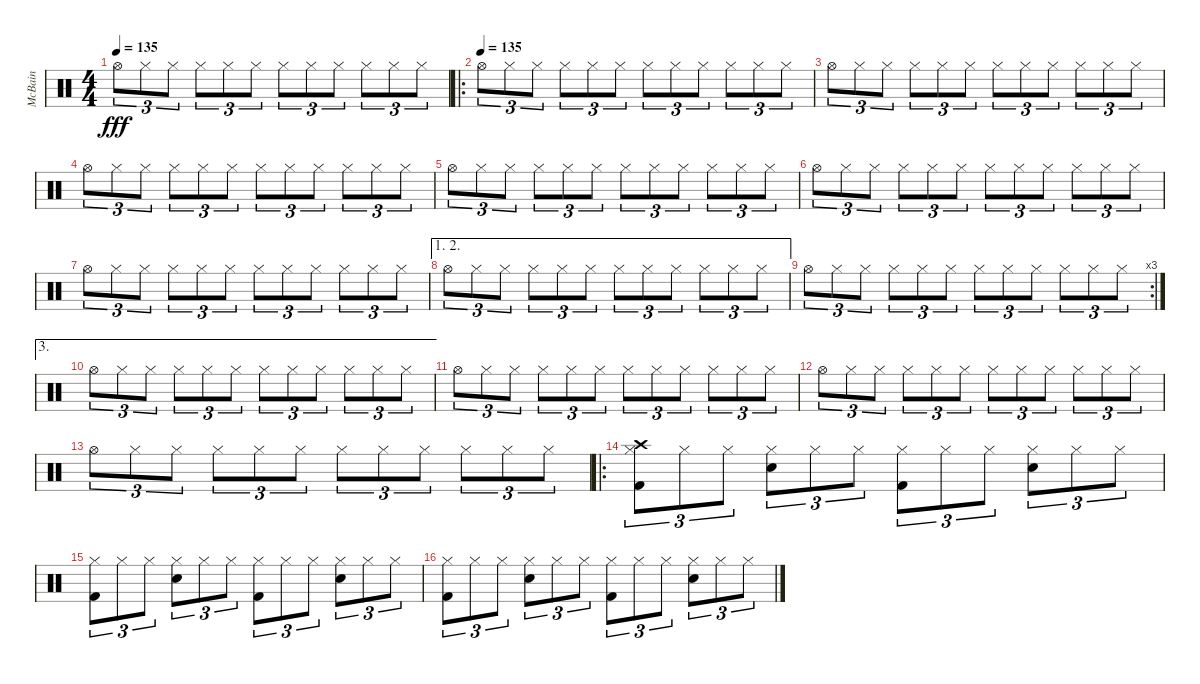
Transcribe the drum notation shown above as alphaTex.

\track ("McBain" "McBain") {instrument percussion}
\staff {score}
\articulation defaults
\ts (4 4)
\tempo 135
\clef neutral
\ks c "Hi-Hat (open)".8{tu (3 2) dy fff} "Hi-Hat (closed)".8{tu (3 2)} "Hi-Hat (closed)".8{tu (3 2)} "Hi-Hat (closed)".8{tu (3 2)} "Hi-Hat (closed)".8{tu (3 2)} "Hi-Hat (closed)".8{tu (3 2)} "Hi-Hat (closed)".8{tu (3 2)} "Hi-Hat (closed)".8{tu (3 2)} "Hi-Hat (closed)".8{tu (3 2)} "Hi-Hat (closed)".8{tu (3 2)} "Hi-Hat (closed)".8{tu (3 2)} "Hi-Hat (closed)".8{tu (3 2)}
|
\ro
\tempo (135)
"Hi-Hat (open)".8{tu (3 2)} "Hi-Hat (closed)".8{tu (3 2)} "Hi-Hat (closed)".8{tu (3 2)} "Hi-Hat (closed)".8{tu (3 2)} "Hi-Hat (closed)".8{tu (3 2)} "Hi-Hat (closed)".8{tu (3 2)} "Hi-Hat (closed)".8{tu (3 2)} "Hi-Hat (closed)".8{tu (3 2)} "Hi-Hat (closed)".8{tu (3 2)} "Hi-Hat (closed)".8{tu (3 2)} "Hi-Hat (closed)".8{tu (3 2)} "Hi-Hat (closed)".8{tu (3 2)} |
"Hi-Hat (open)".8{tu (3 2)} "Hi-Hat (closed)".8{tu (3 2)} "Hi-Hat (closed)".8{tu (3 2)} "Hi-Hat (closed)".8{tu (3 2)} "Hi-Hat (closed)".8{tu (3 2)} "Hi-Hat (closed)".8{tu (3 2)} "Hi-Hat (closed)".8{tu (3 2)} "Hi-Hat (closed)".8{tu (3 2)} "Hi-Hat (closed)".8{tu (3 2)} "Hi-Hat (closed)".8{tu (3 2)} "Hi-Hat (closed)".8{tu (3 2)} "Hi-Hat (closed)".8{tu (3 2)} |
"Hi-Hat (open)".8{tu (3 2)} "Hi-Hat (closed)".8{tu (3 2)} "Hi-Hat (closed)".8{tu (3 2)} "Hi-Hat (closed)".8{tu (3 2)} "Hi-Hat (closed)".8{tu (3 2)} "Hi-Hat (closed)".8{tu (3 2)} "Hi-Hat (closed)".8{tu (3 2)} "Hi-Hat (closed)".8{tu (3 2)} "Hi-Hat (closed)".8{tu (3 2)} "Hi-Hat (closed)".8{tu (3 2)} "Hi-Hat (closed)".8{tu (3 2)} "Hi-Hat (closed)".8{tu (3 2)} |
"Hi-Hat (open)".8{tu (3 2)} "Hi-Hat (closed)".8{tu (3 2)} "Hi-Hat (closed)".8{tu (3 2)} "Hi-Hat (closed)".8{tu (3 2)} "Hi-Hat (closed)".8{tu (3 2)} "Hi-Hat (closed)".8{tu (3 2)} "Hi-Hat (closed)".8{tu (3 2)} "Hi-Hat (closed)".8{tu (3 2)} "Hi-Hat (closed)".8{tu (3 2)} "Hi-Hat (closed)".8{tu (3 2)} "Hi-Hat (closed)".8{tu (3 2)} "Hi-Hat (closed)".8{tu (3 2)} |
"Hi-Hat (open)".8{tu (3 2)} "Hi-Hat (closed)".8{tu (3 2)} "Hi-Hat (closed)".8{tu (3 2)} "Hi-Hat (closed)".8{tu (3 2)} "Hi-Hat (closed)".8{tu (3 2)} "Hi-Hat (closed)".8{tu (3 2)} "Hi-Hat (closed)".8{tu (3 2)} "Hi-Hat (closed)".8{tu (3 2)} "Hi-Hat (closed)".8{tu (3 2)} "Hi-Hat (closed)".8{tu (3 2)} "Hi-Hat (closed)".8{tu (3 2)} "Hi-Hat (closed)".8{tu (3 2)} |
"Hi-Hat (open)".8{tu (3 2)} "Hi-Hat (closed)".8{tu (3 2)} "Hi-Hat (closed)".8{tu (3 2)} "Hi-Hat (closed)".8{tu (3 2)} "Hi-Hat (closed)".8{tu (3 2)} "Hi-Hat (closed)".8{tu (3 2)} "Hi-Hat (closed)".8{tu (3 2)} "Hi-Hat (closed)".8{tu (3 2)} "Hi-Hat (closed)".8{tu (3 2)} "Hi-Hat (closed)".8{tu (3 2)} "Hi-Hat (closed)".8{tu (3 2)} "Hi-Hat (closed)".8{tu (3 2)} |
\ae (1 2)
"Hi-Hat (open)".8{tu (3 2)} "Hi-Hat (closed)".8{tu (3 2)} "Hi-Hat (closed)".8{tu (3 2)} "Hi-Hat (closed)".8{tu (3 2)} "Hi-Hat (closed)".8{tu (3 2)} "Hi-Hat (closed)".8{tu (3 2)} "Hi-Hat (closed)".8{tu (3 2)} "Hi-Hat (closed)".8{tu (3 2)} "Hi-Hat (closed)".8{tu (3 2)} "Hi-Hat (closed)".8{tu (3 2)} "Hi-Hat (closed)".8{tu (3 2)} "Hi-Hat (closed)".8{tu (3 2)} |
\rc 3 "Hi-Hat (open)".8{tu (3 2)} "Hi-Hat (closed)".8{tu (3 2)} "Hi-Hat (closed)".8{tu (3 2)} "Hi-Hat (closed)".8{tu (3 2)} "Hi-Hat (closed)".8{tu (3 2)} "Hi-Hat (closed)".8{tu (3 2)} "Hi-Hat (closed)".8{tu (3 2)} "Hi-Hat (closed)".8{tu (3 2)} "Hi-Hat (closed)".8{tu (3 2)} "Hi-Hat (closed)".8{tu (3 2)} "Hi-Hat (closed)".8{tu (3 2)} "Hi-Hat (closed)".8{tu (3 2)}
|
\ae 3 "Hi-Hat (open)".8{tu (3 2)} "Hi-Hat (closed)".8{tu (3 2)} "Hi-Hat (closed)".8{tu (3 2)} "Hi-Hat (closed)".8{tu (3 2)} "Hi-Hat (closed)".8{tu (3 2)} "Hi-Hat (closed)".8{tu (3 2)} "Hi-Hat (closed)".8{tu (3 2)} "Hi-Hat (closed)".8{tu (3 2)} "Hi-Hat (closed)".8{tu (3 2)} "Hi-Hat (closed)".8{tu (3 2)} "Hi-Hat (closed)".8{tu (3 2)} "Hi-Hat (closed)".8{tu (3 2)}
|
"Hi-Hat (open)".8{tu (3 2)} "Hi-Hat (closed)".8{tu (3 2)} "Hi-Hat (closed)".8{tu (3 2)} "Hi-Hat (closed)".8{tu (3 2)} "Hi-Hat (closed)".8{tu (3 2)} "Hi-Hat (closed)".8{tu (3 2)} "Hi-Hat (closed)".8{tu (3 2)} "Hi-Hat (closed)".8{tu (3 2)} "Hi-Hat (closed)".8{tu (3 2)} "Hi-Hat (closed)".8{tu (3 2)} "Hi-Hat (closed)".8{tu (3 2)} "Hi-Hat (closed)".8{tu (3 2)} |
"Hi-Hat (open)".8{tu (3 2)} "Hi-Hat (closed)".8{tu (3 2)} "Hi-Hat (closed)".8{tu (3 2)} "Hi-Hat (closed)".8{tu (3 2)} "Hi-Hat (closed)".8{tu (3 2)} "Hi-Hat (closed)".8{tu (3 2)} "Hi-Hat (closed)".8{tu (3 2)} "Hi-Hat (closed)".8{tu (3 2)} "Hi-Hat (closed)".8{tu (3 2)} "Hi-Hat (closed)".8{tu (3 2)} "Hi-Hat (closed)".8{tu (3 2)} "Hi-Hat (closed)".8{tu (3 2)} |
"Hi-Hat (open)".8{tu (3 2)} "Hi-Hat (closed)".8{tu (3 2)} "Hi-Hat (closed)".8{tu (3 2)} "Hi-Hat (closed)".8{tu (3 2)} "Hi-Hat (closed)".8{tu (3 2)} "Hi-Hat (closed)".8{tu (3 2)} "Hi-Hat (closed)".8{tu (3 2)} "Hi-Hat (closed)".8{tu (3 2)} "Hi-Hat (closed)".8{tu (3 2)} "Hi-Hat (closed)".8{tu (3 2)} "Hi-Hat (closed)".8{tu (3 2)} "Hi-Hat (closed)".8{tu (3 2)} |
\ro
("Hi-Hat (closed)" "Kick (hit) 2" "Crash high (hit)").8{tu (3 2)} "Hi-Hat (closed)".8{tu (3 2)} "Hi-Hat (closed)".8{tu (3 2)} ("Hi-Hat (closed)" "Snare (hit) 2").8{tu (3 2)} "Hi-Hat (closed)".8{tu (3 2)} "Hi-Hat (closed)".8{tu (3 2)} ("Hi-Hat (closed)" "Kick (hit) 2").8{tu (3 2)} "Hi-Hat (closed)".8{tu (3 2)} "Hi-Hat (closed)".8{tu (3 2)} ("Hi-Hat (closed)" "Snare (hit) 2").8{tu (3 2)} "Hi-Hat (closed)".8{tu (3 2)} "Hi-Hat (closed)".8{tu (3 2)} |
("Hi-Hat (closed)" "Kick (hit) 2").8{tu (3 2)} "Hi-Hat (closed)".8{tu (3 2)} "Hi-Hat (closed)".8{tu (3 2)} ("Hi-Hat (closed)" "Snare (hit) 2").8{tu (3 2)} "Hi-Hat (closed)".8{tu (3 2)} "Hi-Hat (closed)".8{tu (3 2)} ("Hi-Hat (closed)" "Kick (hit) 2").8{tu (3 2)} "Hi-Hat (closed)".8{tu (3 2)} "Hi-Hat (closed)".8{tu (3 2)} ("Hi-Hat (closed)" "Snare (hit) 2").8{tu (3 2)} "Hi-Hat (closed)".8{tu (3 2)} "Hi-Hat (closed)".8{tu (3 2)} |
("Hi-Hat (closed)" "Kick (hit) 2").8{tu (3 2)} "Hi-Hat (closed)".8{tu (3 2)} "Hi-Hat (closed)".8{tu (3 2)} ("Hi-Hat (closed)" "Snare (hit) 2").8{tu (3 2)} "Hi-Hat (closed)".8{tu (3 2)} "Hi-Hat (closed)".8{tu (3 2)} ("Hi-Hat (closed)" "Kick (hit) 2").8{tu (3 2)} "Hi-Hat (closed)".8{tu (3 2)} "Hi-Hat (closed)".8{tu (3 2)} ("Hi-Hat (closed)" "Snare (hit) 2").8{tu (3 2)} "Hi-Hat (closed)".8{tu (3 2)} "Hi-Hat (closed)".8{tu (3 2)}
